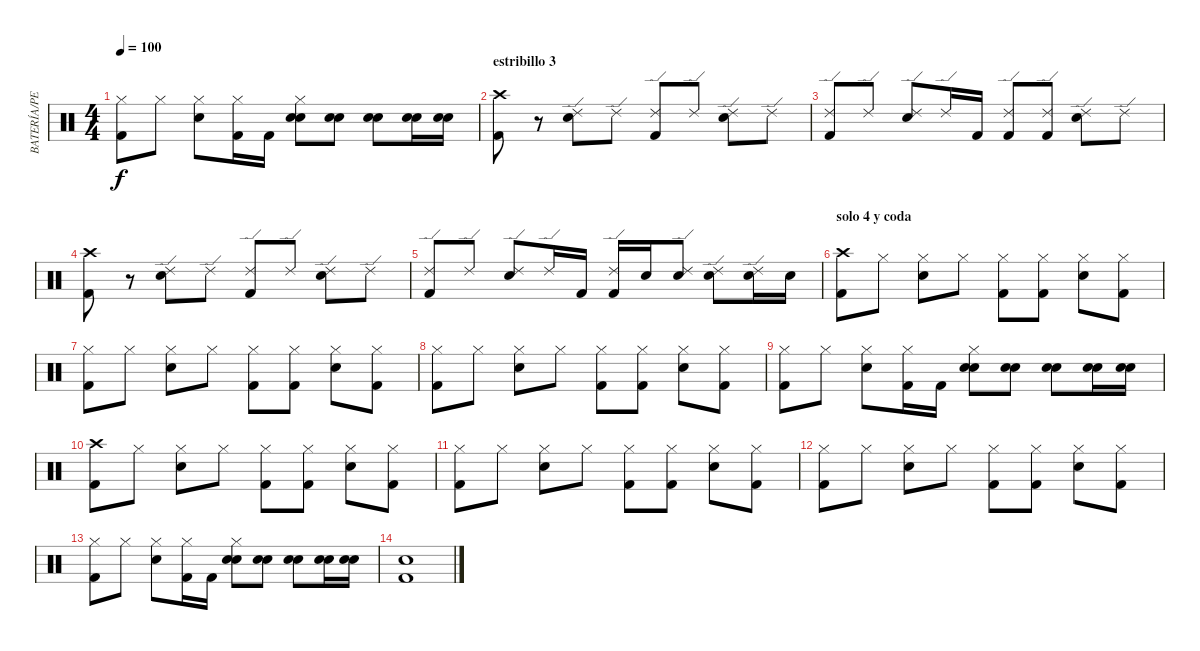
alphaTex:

\track ("BATERÍA/PERCUSIÓN" "BATERÍA/PE") {instrument percussion}
\staff {score}
\articulation defaults
\ts (4 4)
\tempo 100
\clef neutral
\ks c
("Hi-Hat (closed)" "Kick (hit) 2").8{dy f} "Hi-Hat (closed)".8 ("Hi-Hat (closed)" "Hand Clap (hit)").8 ("Hi-Hat (closed)" "Kick (hit) 2").16 "Kick (hit) 2".16 ("Hi-Hat (closed)" "Hand Clap (hit)" "Snare (hit) 2").8 ("Snare (hit) 2" "Hand Clap (hit)").8 ("Snare (hit) 2" "Hand Clap (hit)").8 ("Snare (hit) 2" "Hand Clap (hit)").16 ("Snare (hit) 2" "Hand Clap (hit)").16 |
\section ("" "estribillo 3")
("Crash high (hit)" "Kick (hit) 2").8 r.8 ("Ride (edge) 2" "Electric Snare (hit)").8 "Ride (edge) 2".8 ("Ride (edge) 2" "Kick (hit) 2").8 "Ride (edge) 2".8 ("Ride (edge) 2" "Electric Snare (hit)").8 "Ride (edge) 2".8 |
("Ride (edge) 2" "Kick (hit) 2").8 "Ride (edge) 2".8 ("Ride (edge) 2" "Electric Snare (hit)").8 "Ride (edge) 2".16 "Kick (hit) 2".16 ("Ride (edge) 2" "Kick (hit) 2").8 ("Ride (edge) 2" "Kick (hit) 2").8 ("Ride (edge) 2" "Electric Snare (hit)").8 "Ride (edge) 2".8 |
("Crash high (hit)" "Kick (hit) 2").8 r.8 ("Ride (edge) 2" "Electric Snare (hit)").8 "Ride (edge) 2".8 ("Ride (edge) 2" "Kick (hit) 2").8 "Ride (edge) 2".8 ("Ride (edge) 2" "Electric Snare (hit)").8 "Ride (edge) 2".8 |
("Ride (edge) 2" "Kick (hit) 2").8 "Ride (edge) 2".8 ("Ride (edge) 2" "Electric Snare (hit)").8 "Ride (edge) 2".16 "Kick (hit) 2".16 ("Ride (edge) 2" "Kick (hit) 2").16 "Electric Snare (hit)".16 ("Ride (edge) 2" "Electric Snare (hit)").8 ("Ride (edge) 2" "Electric Snare (hit)").8 ("Ride (edge) 2" "Electric Snare (hit)").16 "Electric Snare (hit)".16 |
\section ("" "solo 4 y coda")
("Crash high (hit)" "Kick (hit) 2").8{volume 16} "Hi-Hat (closed)".8 ("Hi-Hat (closed)" "Hand Clap (hit)").8 "Hi-Hat (closed)".8 ("Hi-Hat (closed)" "Kick (hit) 2").8 ("Kick (hit) 2" "Hi-Hat (closed)").8 ("Hi-Hat (closed)" "Hand Clap (hit)").8 ("Kick (hit) 2" "Hi-Hat (closed)").8 |
("Hi-Hat (closed)" "Kick (hit) 2").8 "Hi-Hat (closed)".8 ("Hi-Hat (closed)" "Hand Clap (hit)").8 "Hi-Hat (closed)".8 ("Hi-Hat (closed)" "Kick (hit) 2").8 ("Kick (hit) 2" "Hi-Hat (closed)").8 ("Hi-Hat (closed)" "Hand Clap (hit)").8 ("Kick (hit) 2" "Hi-Hat (closed)").8 |
("Hi-Hat (closed)" "Kick (hit) 2").8 "Hi-Hat (closed)".8 ("Hi-Hat (closed)" "Hand Clap (hit)").8 "Hi-Hat (closed)".8 ("Hi-Hat (closed)" "Kick (hit) 2").8 ("Kick (hit) 2" "Hi-Hat (closed)").8 ("Hi-Hat (closed)" "Hand Clap (hit)").8 ("Kick (hit) 2" "Hi-Hat (closed)").8 |
("Hi-Hat (closed)" "Kick (hit) 2").8 "Hi-Hat (closed)".8 ("Hi-Hat (closed)" "Hand Clap (hit)").8 ("Hi-Hat (closed)" "Kick (hit) 2").16 "Kick (hit) 2".16 ("Hi-Hat (closed)" "Hand Clap (hit)" "Snare (hit) 2").8 ("Snare (hit) 2" "Hand Clap (hit)").8 ("Snare (hit) 2" "Hand Clap (hit)").8 ("Snare (hit) 2" "Hand Clap (hit)").16 ("Snare (hit) 2" "Hand Clap (hit)").16 |
("Crash high (hit)" "Kick (hit) 2").8{volume 16} "Hi-Hat (closed)".8 ("Hi-Hat (closed)" "Hand Clap (hit)").8 "Hi-Hat (closed)".8 ("Hi-Hat (closed)" "Kick (hit) 2").8 ("Kick (hit) 2" "Hi-Hat (closed)").8 ("Hi-Hat (closed)" "Hand Clap (hit)").8 ("Kick (hit) 2" "Hi-Hat (closed)").8 |
("Hi-Hat (closed)" "Kick (hit) 2").8 "Hi-Hat (closed)".8 ("Hi-Hat (closed)" "Hand Clap (hit)").8 "Hi-Hat (closed)".8 ("Hi-Hat (closed)" "Kick (hit) 2").8 ("Kick (hit) 2" "Hi-Hat (closed)").8 ("Hi-Hat (closed)" "Hand Clap (hit)").8 ("Kick (hit) 2" "Hi-Hat (closed)").8 |
("Hi-Hat (closed)" "Kick (hit) 2").8 "Hi-Hat (closed)".8 ("Hi-Hat (closed)" "Hand Clap (hit)").8 "Hi-Hat (closed)".8 ("Hi-Hat (closed)" "Kick (hit) 2").8 ("Kick (hit) 2" "Hi-Hat (closed)").8 ("Hi-Hat (closed)" "Hand Clap (hit)").8 ("Kick (hit) 2" "Hi-Hat (closed)").8 |
("Hi-Hat (closed)" "Kick (hit) 2").8 "Hi-Hat (closed)".8 ("Hi-Hat (closed)" "Hand Clap (hit)").8 ("Hi-Hat (closed)" "Kick (hit) 2").16 "Kick (hit) 2".16 ("Hi-Hat (closed)" "Hand Clap (hit)" "Snare (hit) 2").8 ("Snare (hit) 2" "Hand Clap (hit)").8 ("Snare (hit) 2" "Hand Clap (hit)").8 ("Snare (hit) 2" "Hand Clap (hit)").16 ("Snare (hit) 2" "Hand Clap (hit)").16 |
("Hand Clap (hit)" "Kick (hit) 2").1
